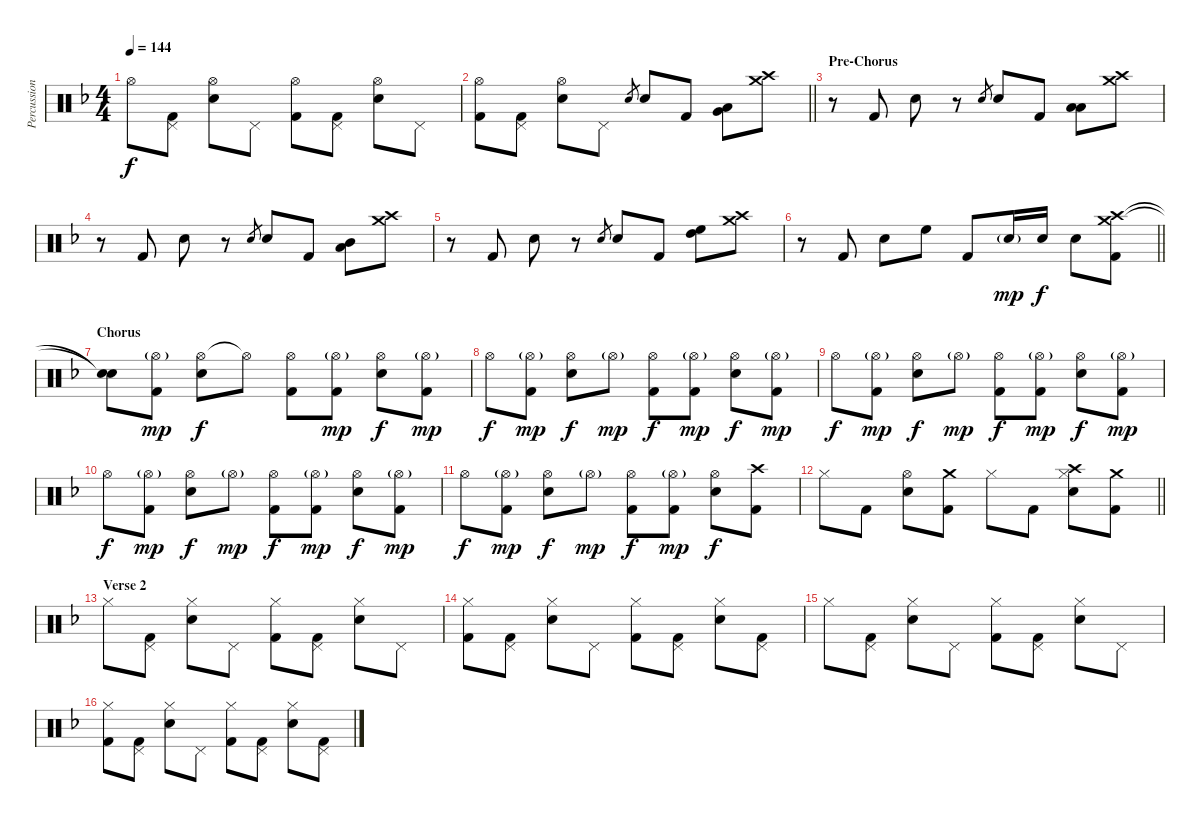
\track ("Percussion" "Percussion") {instrument percussion}
\staff {score}
\articulation defaults
\ts (4 4)
\tempo 144
\clef neutral
\ks f "Hi-Hat (open)".8{dy f}
("Pedal Hi-Hat (hit)" "Kick (hit) 2").8 ("Electric Snare (hit)" "Hi-Hat (open)").8 "Pedal Hi-Hat (hit)".8 ("Hi-Hat (open)" "Kick (hit) 2").8 ("Pedal Hi-Hat (hit)" "Kick (hit) 2").8 ("Electric Snare (hit)" "Hi-Hat (open)").8 "Pedal Hi-Hat (hit)".8 |
\barLineRight lightlight
("Hi-Hat (open)" "Kick (hit) 2").8 ("Pedal Hi-Hat (hit)" "Kick (hit) 2").8 ("Electric Snare (hit)" "Hi-Hat (open)").8 "Pedal Hi-Hat (hit)".8 "Electric Snare (hit)".8{gr} "Electric Snare (hit)".8 "Kick (hit) 2".8 ("Low Floor Tom (hit)" "Very Low Tom (hit)").8 ("Crash high (hit)" "Crash medium (hit)").8 |
\section ("" "Pre-Chorus")
r.8 "Kick (hit) 2".8 "Electric Snare (hit)".8 r.8 "Electric Snare (hit)".8{gr} "Electric Snare (hit)".8 "Kick (hit) 2".8 ("Low Tom (hit)" "Low Floor Tom (hit)").8 ("Crash medium (hit)" "Crash high (hit)").8 |
r.8 "Kick (hit) 2".8 "Electric Snare (hit)".8 r.8 "Electric Snare (hit)".8{gr} "Electric Snare (hit)".8 "Kick (hit) 2".8 ("Low Tom (hit)" "Mid Tom (hit)").8 ("Crash medium (hit)" "Crash high (hit)").8 |
r.8 "Kick (hit) 2".8 "Electric Snare (hit)".8 r.8 "Electric Snare (hit)".8{gr} "Electric Snare (hit)".8 "Kick (hit) 2".8 ("High Floor Tom (hit)" "High Tom (hit)").8 ("Crash medium (hit)" "Crash high (hit)").8 |
\barLineRight lightlight
r.8 "Kick (hit) 2".8 "Electric Snare (hit)".8 "High Floor Tom (hit)".8 "Kick (hit) 2".8 "Electric Snare (hit)"{g}.16{dy mp} "Electric Snare (hit)".16{dy f} "Electric Snare (hit)".8 ("Crash medium (hit)" "Crash high (hit)" "Kick (hit) 2").8 |
\section ("" "Chorus")
("Snare (hit)"{t} "Snare (hit)"{t}).8 ("Hi-Hat (open)"{g} "Kick (hit) 2").8{dy mp} ("Hi-Hat (open)" "Electric Snare (hit)").8{dy f} "Hi-Hat (open)"{t}.8 ("Hi-Hat (open)" "Kick (hit) 2").8 ("Hi-Hat (open)"{g} "Kick (hit) 2").8{dy mp} ("Hi-Hat (open)" "Electric Snare (hit)").8{dy f} ("Hi-Hat (open)"{g} "Kick (hit) 2").8{dy mp} |
"Hi-Hat (open)".8{dy f} ("Hi-Hat (open)"{g} "Kick (hit) 2").8{dy mp} ("Hi-Hat (open)" "Electric Snare (hit)").8{dy f} "Hi-Hat (open)"{g}.8{dy mp} ("Hi-Hat (open)" "Kick (hit) 2").8{dy f} ("Hi-Hat (open)"{g} "Kick (hit) 2").8{dy mp} ("Hi-Hat (open)" "Electric Snare (hit)").8{dy f} ("Hi-Hat (open)"{g} "Kick (hit) 2").8{dy mp} |
"Hi-Hat (open)".8{dy f} ("Hi-Hat (open)"{g} "Kick (hit) 2").8{dy mp} ("Hi-Hat (open)" "Electric Snare (hit)").8{dy f} "Hi-Hat (open)"{g}.8{dy mp} ("Hi-Hat (open)" "Kick (hit) 2").8{dy f} ("Hi-Hat (open)"{g} "Kick (hit) 2").8{dy mp} ("Hi-Hat (open)" "Electric Snare (hit)").8{dy f} ("Hi-Hat (open)"{g} "Kick (hit) 2").8{dy mp} |
"Hi-Hat (open)".8{dy f} ("Hi-Hat (open)"{g} "Kick (hit) 2").8{dy mp} ("Hi-Hat (open)" "Electric Snare (hit)").8{dy f} "Hi-Hat (open)"{g}.8{dy mp} ("Hi-Hat (open)" "Kick (hit) 2").8{dy f} ("Hi-Hat (open)"{g} "Kick (hit) 2").8{dy mp} ("Hi-Hat (open)" "Electric Snare (hit)").8{dy f} ("Hi-Hat (open)"{g} "Kick (hit) 2").8{dy mp} |
"Hi-Hat (open)".8{dy f} ("Hi-Hat (open)"{g} "Kick (hit) 2").8{dy mp} ("Hi-Hat (open)" "Electric Snare (hit)").8{dy f} "Hi-Hat (open)"{g}.8{dy mp} ("Hi-Hat (open)" "Kick (hit) 2").8{dy f} ("Hi-Hat (open)"{g} "Kick (hit) 2").8{dy mp} ("Hi-Hat (open)" "Electric Snare (hit)").8{dy f} ("Crash high (hit)" "Kick (hit) 2").8 |
\barLineRight lightlight "Hi-Hat (closed)".8 "Kick (hit) 2".8
("Hi-Hat (open)" "Electric Snare (hit)").8 ("Crash medium (hit)" "Kick (hit) 2").8 "Hi-Hat (closed)".8 "Kick (hit) 2".8 ("Crash high (hit)" "Hi-Hat (closed)" "Electric Snare (hit)").8 ("Crash medium (hit)" "Kick (hit) 2").8 |
\section ("" "Verse 2")
"Hi-Hat (closed)".8 ("Pedal Hi-Hat (hit)" "Kick (hit) 2").8 ("Electric Snare (hit)" "Hi-Hat (closed)").8 "Pedal Hi-Hat (hit)".8 ("Hi-Hat (closed)" "Kick (hit) 2").8 ("Pedal Hi-Hat (hit)" "Kick (hit) 2").8 ("Electric Snare (hit)" "Hi-Hat (closed)").8 "Pedal Hi-Hat (hit)".8 |
("Hi-Hat (closed)" "Kick (hit) 2").8 ("Pedal Hi-Hat (hit)" "Kick (hit) 2").8 ("Electric Snare (hit)" "Hi-Hat (closed)").8 "Pedal Hi-Hat (hit)".8 ("Hi-Hat (closed)" "Kick (hit) 2").8 ("Pedal Hi-Hat (hit)" "Kick (hit) 2").8 ("Electric Snare (hit)" "Hi-Hat (closed)").8 ("Pedal Hi-Hat (hit)" "Kick (hit) 2").8 |
"Hi-Hat (closed)".8 ("Pedal Hi-Hat (hit)" "Kick (hit) 2").8 ("Electric Snare (hit)" "Hi-Hat (closed)").8 "Pedal Hi-Hat (hit)".8 ("Hi-Hat (closed)" "Kick (hit) 2").8 ("Pedal Hi-Hat (hit)" "Kick (hit) 2").8 ("Electric Snare (hit)" "Hi-Hat (closed)").8 "Pedal Hi-Hat (hit)".8 |
("Hi-Hat (closed)" "Kick (hit) 2").8 ("Pedal Hi-Hat (hit)" "Kick (hit) 2").8 ("Electric Snare (hit)" "Hi-Hat (closed)").8 "Pedal Hi-Hat (hit)".8 ("Hi-Hat (closed)" "Kick (hit) 2").8 ("Pedal Hi-Hat (hit)" "Kick (hit) 2").8 ("Electric Snare (hit)" "Hi-Hat (closed)").8 ("Pedal Hi-Hat (hit)" "Kick (hit) 2").8
